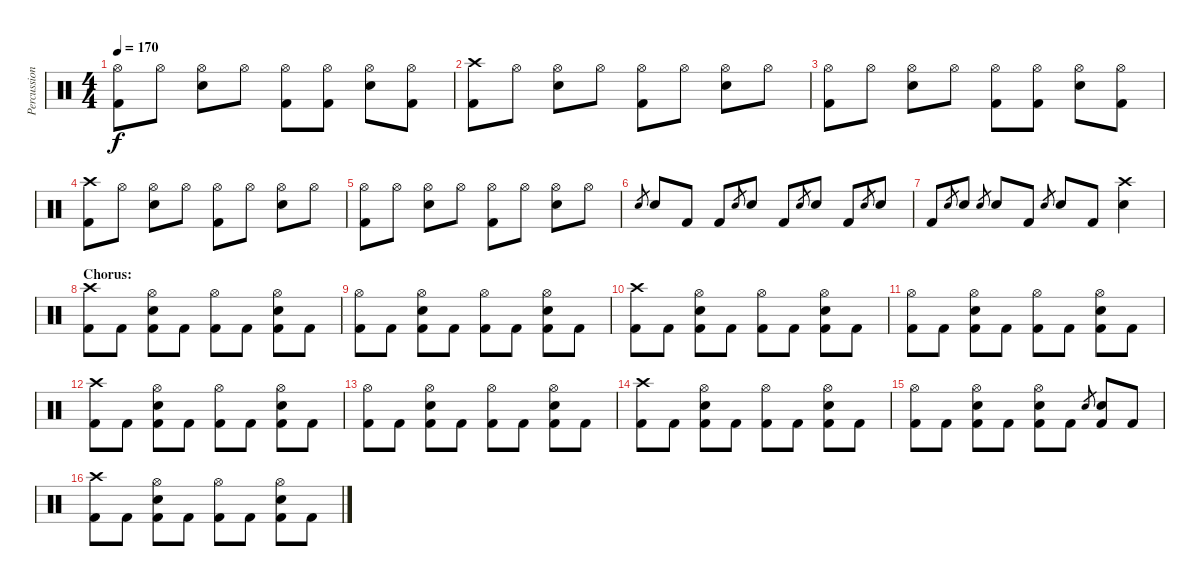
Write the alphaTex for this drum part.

\track ("Percussion" "Percussion") {instrument percussion}
\staff {score}
\articulation defaults
\ts (4 4)
\tempo 170
\clef neutral
\ks c
("Hi-Hat (open)" "Kick (hit) 2").8{dy f} "Hi-Hat (open)".8 ("Hi-Hat (open)" "Snare (hit) 2").8 "Hi-Hat (open)".8 ("Hi-Hat (open)" "Kick (hit) 2").8 ("Hi-Hat (open)" "Kick (hit) 2").8 ("Hi-Hat (open)" "Snare (hit) 2").8 ("Hi-Hat (open)" "Kick (hit) 2").8 |
("Crash high (hit)" "Kick (hit) 2").8 "Hi-Hat (open)".8 ("Hi-Hat (open)" "Snare (hit) 2").8 "Hi-Hat (open)".8 ("Hi-Hat (open)" "Kick (hit) 2").8 "Hi-Hat (open)".8 ("Hi-Hat (open)" "Snare (hit) 2").8 "Hi-Hat (open)".8 |
("Hi-Hat (open)" "Kick (hit) 2").8 "Hi-Hat (open)".8 ("Hi-Hat (open)" "Snare (hit) 2").8 "Hi-Hat (open)".8 ("Hi-Hat (open)" "Kick (hit) 2").8 ("Hi-Hat (open)" "Kick (hit) 2").8 ("Hi-Hat (open)" "Snare (hit) 2").8 ("Hi-Hat (open)" "Kick (hit) 2").8 |
("Crash high (hit)" "Kick (hit) 2").8 "Hi-Hat (open)".8 ("Hi-Hat (open)" "Snare (hit) 2").8 "Hi-Hat (open)".8 ("Hi-Hat (open)" "Kick (hit) 2").8 "Hi-Hat (open)".8 ("Hi-Hat (open)" "Snare (hit) 2").8 "Hi-Hat (open)".8 |
("Hi-Hat (open)" "Kick (hit) 2").8 "Hi-Hat (open)".8 ("Hi-Hat (open)" "Snare (hit) 2").8 "Hi-Hat (open)".8 ("Hi-Hat (open)" "Kick (hit) 2").8 "Hi-Hat (open)".8 ("Hi-Hat (open)" "Snare (hit) 2").8 "Hi-Hat (open)".8 |
"Snare (hit) 2".8{gr} "Snare (hit) 2".8 "Kick (hit) 2".8 "Kick (hit) 2".8 "Snare (hit) 2".8{gr} "Snare (hit) 2".8 "Kick (hit) 2".8 "Snare (hit) 2".8{gr} "Snare (hit) 2".8 "Kick (hit) 2".8 "Snare (hit) 2".8{gr} "Snare (hit) 2".8 |
"Kick (hit) 2".8 "Snare (hit) 2".8{gr} "Snare (hit) 2".8 "Snare (hit) 2".8{gr} "Snare (hit) 2".8 "Kick (hit) 2".8 "Snare (hit) 2".8{gr} "Snare (hit) 2".8 "Kick (hit) 2".8 ("Crash high (hit)" "Snare (hit) 2").4 |
\section ("" "Chorus:")
("Crash high (hit)" "Kick (hit) 2").8 "Kick (hit) 2".8 ("Hi-Hat (open)" "Snare (hit) 2" "Kick (hit) 2").8 "Kick (hit) 2".8 ("Hi-Hat (open)" "Kick (hit) 2").8 "Kick (hit) 2".8 ("Hi-Hat (open)" "Snare (hit) 2" "Kick (hit) 2").8 "Kick (hit) 2".8 |
("Hi-Hat (open)" "Kick (hit) 2").8 "Kick (hit) 2".8 ("Hi-Hat (open)" "Snare (hit) 2" "Kick (hit) 2").8 "Kick (hit) 2".8 ("Hi-Hat (open)" "Kick (hit) 2").8 "Kick (hit) 2".8 ("Hi-Hat (open)" "Snare (hit) 2" "Kick (hit) 2").8 "Kick (hit) 2".8 |
("Crash high (hit)" "Kick (hit) 2").8 "Kick (hit) 2".8 ("Hi-Hat (open)" "Snare (hit) 2" "Kick (hit) 2").8 "Kick (hit) 2".8 ("Hi-Hat (open)" "Kick (hit) 2").8 "Kick (hit) 2".8 ("Hi-Hat (open)" "Snare (hit) 2" "Kick (hit) 2").8 "Kick (hit) 2".8 |
("Hi-Hat (open)" "Kick (hit) 2").8 "Kick (hit) 2".8 ("Hi-Hat (open)" "Snare (hit) 2" "Kick (hit) 2").8 "Kick (hit) 2".8 ("Hi-Hat (open)" "Kick (hit) 2").8 "Kick (hit) 2".8 ("Hi-Hat (open)" "Snare (hit) 2" "Kick (hit) 2").8 "Kick (hit) 2".8 |
("Crash high (hit)" "Kick (hit) 2").8 "Kick (hit) 2".8 ("Hi-Hat (open)" "Snare (hit) 2" "Kick (hit) 2").8 "Kick (hit) 2".8 ("Hi-Hat (open)" "Kick (hit) 2").8 "Kick (hit) 2".8 ("Hi-Hat (open)" "Snare (hit) 2" "Kick (hit) 2").8 "Kick (hit) 2".8 |
("Hi-Hat (open)" "Kick (hit) 2").8 "Kick (hit) 2".8 ("Hi-Hat (open)" "Snare (hit) 2" "Kick (hit) 2").8 "Kick (hit) 2".8 ("Hi-Hat (open)" "Kick (hit) 2").8 "Kick (hit) 2".8 ("Hi-Hat (open)" "Snare (hit) 2" "Kick (hit) 2").8 "Kick (hit) 2".8 |
("Crash high (hit)" "Kick (hit) 2").8 "Kick (hit) 2".8 ("Hi-Hat (open)" "Snare (hit) 2" "Kick (hit) 2").8 "Kick (hit) 2".8 ("Hi-Hat (open)" "Kick (hit) 2").8 "Kick (hit) 2".8 ("Hi-Hat (open)" "Snare (hit) 2" "Kick (hit) 2").8 "Kick (hit) 2".8 |
("Hi-Hat (open)" "Kick (hit) 2").8 "Kick (hit) 2".8 ("Hi-Hat (open)" "Snare (hit) 2" "Kick (hit) 2").8 "Kick (hit) 2".8 ("Hi-Hat (open)" "Snare (hit) 2" "Kick (hit) 2").8 "Kick (hit) 2".8 "Snare (hit) 2".8{gr} ("Snare (hit) 2" "Kick (hit) 2").8 "Kick (hit) 2".8 |
("Crash high (hit)" "Kick (hit) 2").8 "Kick (hit) 2".8 ("Hi-Hat (open)" "Snare (hit) 2" "Kick (hit) 2").8 "Kick (hit) 2".8 ("Hi-Hat (open)" "Kick (hit) 2").8 "Kick (hit) 2".8 ("Hi-Hat (open)" "Snare (hit) 2" "Kick (hit) 2").8 "Kick (hit) 2".8
